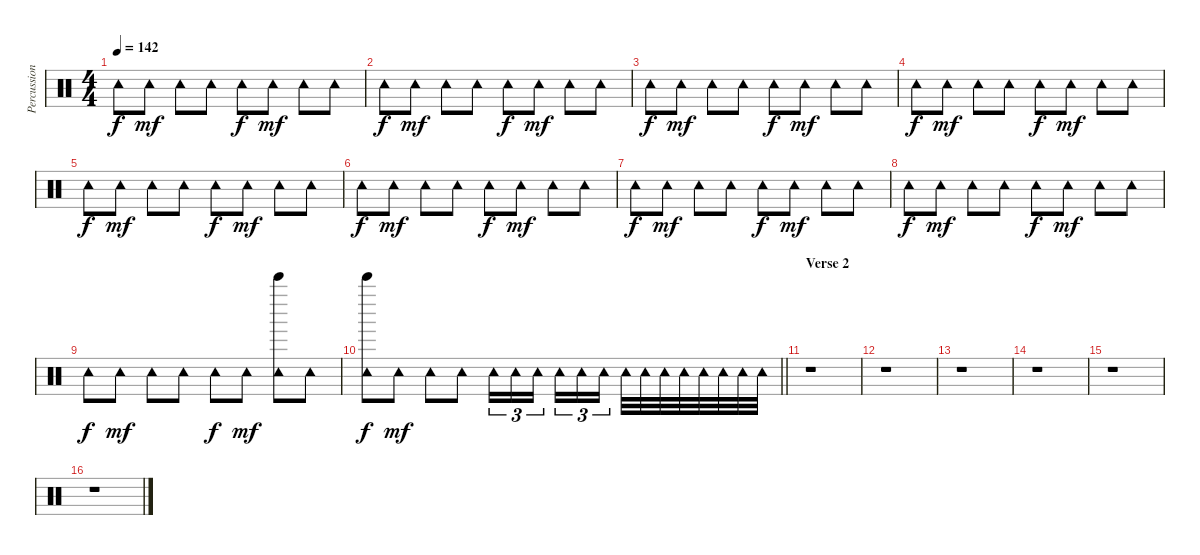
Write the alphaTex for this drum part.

\track ("Percussion" "Percussion") {instrument percussion}
\staff {score}
\articulation defaults
\ts (4 4)
\tempo 142
\clef neutral
\ks c "Tambourine (hit)".8{dy f} "Tambourine (hit)".8{dy mf} "Tambourine (hit)".8 "Tambourine (hit)".8 "Tambourine (hit)".8{dy f} "Tambourine (hit)".8{dy mf} "Tambourine (hit)".8 "Tambourine (hit)".8
|
"Tambourine (hit)".8{dy f} "Tambourine (hit)".8{dy mf} "Tambourine (hit)".8 "Tambourine (hit)".8 "Tambourine (hit)".8{dy f} "Tambourine (hit)".8{dy mf} "Tambourine (hit)".8 "Tambourine (hit)".8 |
"Tambourine (hit)".8{dy f} "Tambourine (hit)".8{dy mf} "Tambourine (hit)".8 "Tambourine (hit)".8 "Tambourine (hit)".8{dy f} "Tambourine (hit)".8{dy mf} "Tambourine (hit)".8 "Tambourine (hit)".8 |
"Tambourine (hit)".8{dy f} "Tambourine (hit)".8{dy mf} "Tambourine (hit)".8 "Tambourine (hit)".8 "Tambourine (hit)".8{dy f} "Tambourine (hit)".8{dy mf} "Tambourine (hit)".8 "Tambourine (hit)".8 |
"Tambourine (hit)".8{dy f} "Tambourine (hit)".8{dy mf} "Tambourine (hit)".8 "Tambourine (hit)".8 "Tambourine (hit)".8{dy f} "Tambourine (hit)".8{dy mf} "Tambourine (hit)".8 "Tambourine (hit)".8 |
"Tambourine (hit)".8{dy f} "Tambourine (hit)".8{dy mf} "Tambourine (hit)".8 "Tambourine (hit)".8 "Tambourine (hit)".8{dy f} "Tambourine (hit)".8{dy mf} "Tambourine (hit)".8 "Tambourine (hit)".8 |
"Tambourine (hit)".8{dy f} "Tambourine (hit)".8{dy mf} "Tambourine (hit)".8 "Tambourine (hit)".8 "Tambourine (hit)".8{dy f} "Tambourine (hit)".8{dy mf} "Tambourine (hit)".8 "Tambourine (hit)".8 |
"Tambourine (hit)".8{dy f} "Tambourine (hit)".8{dy mf} "Tambourine (hit)".8 "Tambourine (hit)".8 "Tambourine (hit)".8{dy f} "Tambourine (hit)".8{dy mf} "Tambourine (hit)".8 "Tambourine (hit)".8 |
"Tambourine (hit)".8{dy f} "Tambourine (hit)".8{dy mf} "Tambourine (hit)".8 "Tambourine (hit)".8 "Tambourine (hit)".8{dy f} "Tambourine (hit)".8{dy mf} ("Bell Tree (hit)" "Tambourine (hit)").8 "Tambourine (hit)".8 |
\barLineRight lightlight
("Bell Tree (hit)" "Tambourine (hit)").8{dy f} "Tambourine (hit)".8{dy mf} "Tambourine (hit)".8 "Tambourine (hit)".8 "Tambourine (hit)".16{tu (3 2)} "Tambourine (hit)".16{tu (3 2)} "Tambourine (hit)".16{tu (3 2) beam splitsecondary} "Tambourine (hit)".16{tu (3 2)} "Tambourine (hit)".16{tu (3 2)} "Tambourine (hit)".16{tu (3 2)} "Tambourine (hit)".32 "Tambourine (hit)".32 "Tambourine (hit)".32 "Tambourine (hit)".32 "Tambourine (hit)".32 "Tambourine (hit)".32 "Tambourine (hit)".32 "Tambourine (hit)".32 |
\section ("" "Verse 2")
r.1 |
r.1 |
r.1 |
r.1 |
r.1 |
r.1
